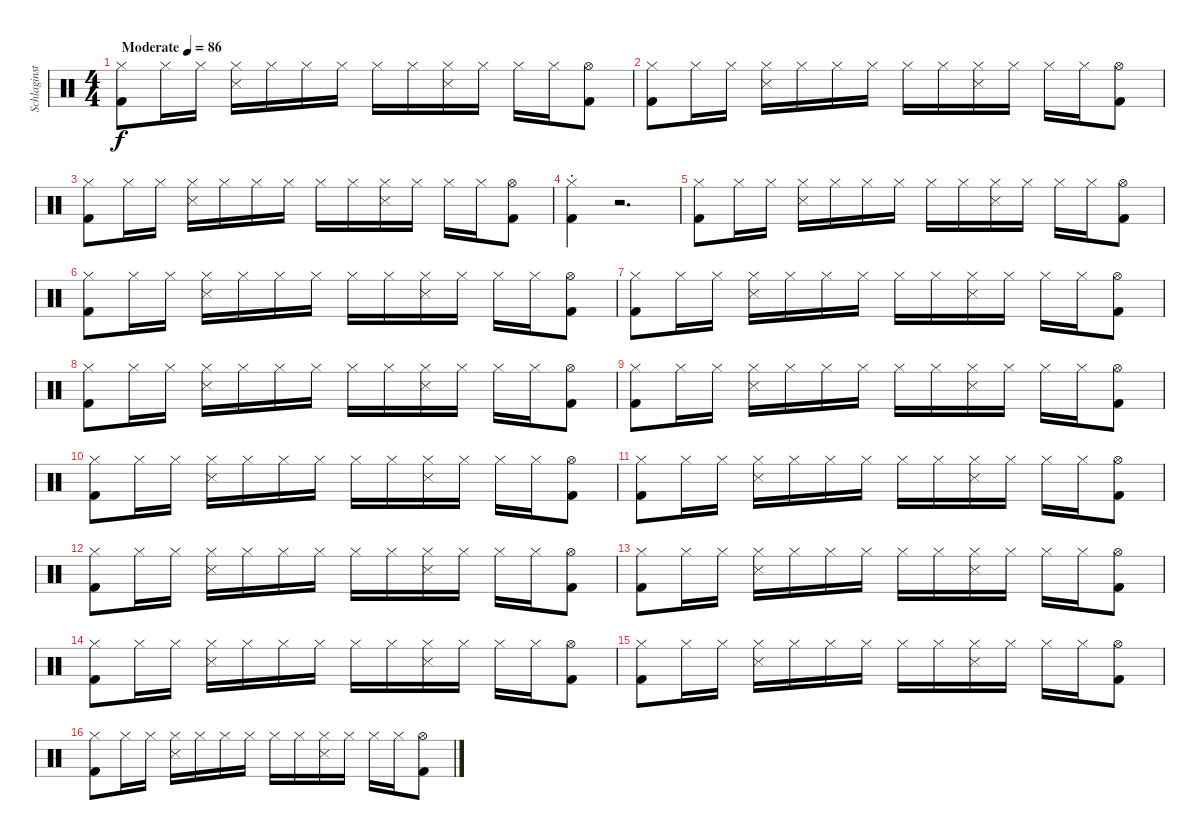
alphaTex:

\track ("Schlaginstrumente - Auswahl" "Schlaginst") {instrument percussion}
\staff {score}
\articulation defaults
\ts (4 4)
\tempo (86 "Moderate")
\clef neutral
\ks c
("Hi-Hat (closed)" "Kick (hit) 2").8{dy f} "Hi-Hat (closed)".16 "Hi-Hat (closed)".16 ("Hi-Hat (closed)" "Snare (side stick) 3").16 "Hi-Hat (closed)".16 "Hi-Hat (closed)".16 "Hi-Hat (closed)".16 "Hi-Hat (closed)".16 "Hi-Hat (closed)".16 ("Hi-Hat (closed)" "Snare (side stick) 3").16 "Hi-Hat (closed)".16 "Hi-Hat (closed)".16 "Hi-Hat (closed)".16 ("Hi-Hat (open)" "Kick (hit) 2").8 |
("Hi-Hat (closed)" "Kick (hit) 2").8 "Hi-Hat (closed)".16 "Hi-Hat (closed)".16 ("Hi-Hat (closed)" "Snare (side stick) 3").16 "Hi-Hat (closed)".16 "Hi-Hat (closed)".16 "Hi-Hat (closed)".16 "Hi-Hat (closed)".16 "Hi-Hat (closed)".16 ("Hi-Hat (closed)" "Snare (side stick) 3").16 "Hi-Hat (closed)".16 "Hi-Hat (closed)".16 "Hi-Hat (closed)".16 ("Hi-Hat (open)" "Kick (hit) 2").8 |
("Hi-Hat (closed)" "Kick (hit) 2").8 "Hi-Hat (closed)".16 "Hi-Hat (closed)".16 ("Hi-Hat (closed)" "Snare (side stick) 3").16 "Hi-Hat (closed)".16 "Hi-Hat (closed)".16 "Hi-Hat (closed)".16 "Hi-Hat (closed)".16 "Hi-Hat (closed)".16 ("Hi-Hat (closed)" "Snare (side stick) 3").16 "Hi-Hat (closed)".16 "Hi-Hat (closed)".16 "Hi-Hat (closed)".16 ("Hi-Hat (open)" "Kick (hit) 2").8 |
("Hi-Hat (closed)"{st} "Kick (hit) 2"{st}).4 r.2{d} |
("Hi-Hat (closed)" "Kick (hit) 2").8 "Hi-Hat (closed)".16 "Hi-Hat (closed)".16 ("Hi-Hat (closed)" "Snare (side stick) 3").16 "Hi-Hat (closed)".16 "Hi-Hat (closed)".16 "Hi-Hat (closed)".16 "Hi-Hat (closed)".16 "Hi-Hat (closed)".16 ("Hi-Hat (closed)" "Snare (side stick) 3").16 "Hi-Hat (closed)".16 "Hi-Hat (closed)".16 "Hi-Hat (closed)".16 ("Hi-Hat (open)" "Kick (hit) 2").8 |
("Hi-Hat (closed)" "Kick (hit) 2").8 "Hi-Hat (closed)".16 "Hi-Hat (closed)".16 ("Hi-Hat (closed)" "Snare (side stick) 3").16 "Hi-Hat (closed)".16 "Hi-Hat (closed)".16 "Hi-Hat (closed)".16 "Hi-Hat (closed)".16 "Hi-Hat (closed)".16 ("Hi-Hat (closed)" "Snare (side stick) 3").16 "Hi-Hat (closed)".16 "Hi-Hat (closed)".16 "Hi-Hat (closed)".16 ("Hi-Hat (open)" "Kick (hit) 2").8 |
("Hi-Hat (closed)" "Kick (hit) 2").8 "Hi-Hat (closed)".16 "Hi-Hat (closed)".16 ("Hi-Hat (closed)" "Snare (side stick) 3").16 "Hi-Hat (closed)".16 "Hi-Hat (closed)".16 "Hi-Hat (closed)".16 "Hi-Hat (closed)".16 "Hi-Hat (closed)".16 ("Hi-Hat (closed)" "Snare (side stick) 3").16 "Hi-Hat (closed)".16 "Hi-Hat (closed)".16 "Hi-Hat (closed)".16 ("Hi-Hat (open)" "Kick (hit) 2").8 |
("Hi-Hat (closed)" "Kick (hit) 2").8 "Hi-Hat (closed)".16 "Hi-Hat (closed)".16 ("Hi-Hat (closed)" "Snare (side stick) 3").16 "Hi-Hat (closed)".16 "Hi-Hat (closed)".16 "Hi-Hat (closed)".16 "Hi-Hat (closed)".16 "Hi-Hat (closed)".16 ("Hi-Hat (closed)" "Snare (side stick) 3").16 "Hi-Hat (closed)".16 "Hi-Hat (closed)".16 "Hi-Hat (closed)".16 ("Hi-Hat (open)" "Kick (hit) 2").8 |
("Hi-Hat (closed)" "Kick (hit) 2").8 "Hi-Hat (closed)".16 "Hi-Hat (closed)".16 ("Hi-Hat (closed)" "Snare (side stick) 3").16 "Hi-Hat (closed)".16 "Hi-Hat (closed)".16 "Hi-Hat (closed)".16 "Hi-Hat (closed)".16 "Hi-Hat (closed)".16 ("Hi-Hat (closed)" "Snare (side stick) 3").16 "Hi-Hat (closed)".16 "Hi-Hat (closed)".16 "Hi-Hat (closed)".16 ("Hi-Hat (open)" "Kick (hit) 2").8 |
("Hi-Hat (closed)" "Kick (hit) 2").8 "Hi-Hat (closed)".16 "Hi-Hat (closed)".16 ("Hi-Hat (closed)" "Snare (side stick) 3").16 "Hi-Hat (closed)".16 "Hi-Hat (closed)".16 "Hi-Hat (closed)".16 "Hi-Hat (closed)".16 "Hi-Hat (closed)".16 ("Hi-Hat (closed)" "Snare (side stick) 3").16 "Hi-Hat (closed)".16 "Hi-Hat (closed)".16 "Hi-Hat (closed)".16 ("Hi-Hat (open)" "Kick (hit) 2").8 |
("Hi-Hat (closed)" "Kick (hit) 2").8 "Hi-Hat (closed)".16 "Hi-Hat (closed)".16 ("Hi-Hat (closed)" "Snare (side stick) 3").16 "Hi-Hat (closed)".16 "Hi-Hat (closed)".16 "Hi-Hat (closed)".16 "Hi-Hat (closed)".16 "Hi-Hat (closed)".16 ("Hi-Hat (closed)" "Snare (side stick) 3").16 "Hi-Hat (closed)".16 "Hi-Hat (closed)".16 "Hi-Hat (closed)".16 ("Hi-Hat (open)" "Kick (hit) 2").8 |
("Hi-Hat (closed)" "Kick (hit) 2").8 "Hi-Hat (closed)".16 "Hi-Hat (closed)".16 ("Hi-Hat (closed)" "Snare (side stick) 3").16 "Hi-Hat (closed)".16 "Hi-Hat (closed)".16 "Hi-Hat (closed)".16 "Hi-Hat (closed)".16 "Hi-Hat (closed)".16 ("Hi-Hat (closed)" "Snare (side stick) 3").16 "Hi-Hat (closed)".16 "Hi-Hat (closed)".16 "Hi-Hat (closed)".16 ("Hi-Hat (open)" "Kick (hit) 2").8 |
("Hi-Hat (closed)" "Kick (hit) 2").8 "Hi-Hat (closed)".16 "Hi-Hat (closed)".16 ("Hi-Hat (closed)" "Snare (side stick) 3").16 "Hi-Hat (closed)".16 "Hi-Hat (closed)".16 "Hi-Hat (closed)".16 "Hi-Hat (closed)".16 "Hi-Hat (closed)".16 ("Hi-Hat (closed)" "Snare (side stick) 3").16 "Hi-Hat (closed)".16 "Hi-Hat (closed)".16 "Hi-Hat (closed)".16 ("Hi-Hat (open)" "Kick (hit) 2").8 |
("Hi-Hat (closed)" "Kick (hit) 2").8 "Hi-Hat (closed)".16 "Hi-Hat (closed)".16 ("Hi-Hat (closed)" "Snare (side stick) 3").16 "Hi-Hat (closed)".16 "Hi-Hat (closed)".16 "Hi-Hat (closed)".16 "Hi-Hat (closed)".16 "Hi-Hat (closed)".16 ("Hi-Hat (closed)" "Snare (side stick) 3").16 "Hi-Hat (closed)".16 "Hi-Hat (closed)".16 "Hi-Hat (closed)".16 ("Hi-Hat (open)" "Kick (hit) 2").8 |
("Hi-Hat (closed)" "Kick (hit) 2").8 "Hi-Hat (closed)".16 "Hi-Hat (closed)".16 ("Hi-Hat (closed)" "Snare (side stick) 3").16 "Hi-Hat (closed)".16 "Hi-Hat (closed)".16 "Hi-Hat (closed)".16 "Hi-Hat (closed)".16 "Hi-Hat (closed)".16 ("Hi-Hat (closed)" "Snare (side stick) 3").16 "Hi-Hat (closed)".16 "Hi-Hat (closed)".16 "Hi-Hat (closed)".16 ("Hi-Hat (open)" "Kick (hit) 2").8 |
("Hi-Hat (closed)" "Kick (hit) 2").8 "Hi-Hat (closed)".16 "Hi-Hat (closed)".16 ("Hi-Hat (closed)" "Snare (side stick) 3").16 "Hi-Hat (closed)".16 "Hi-Hat (closed)".16 "Hi-Hat (closed)".16 "Hi-Hat (closed)".16 "Hi-Hat (closed)".16 ("Hi-Hat (closed)" "Snare (side stick) 3").16 "Hi-Hat (closed)".16 "Hi-Hat (closed)".16 "Hi-Hat (closed)".16 ("Hi-Hat (open)" "Kick (hit) 2").8
